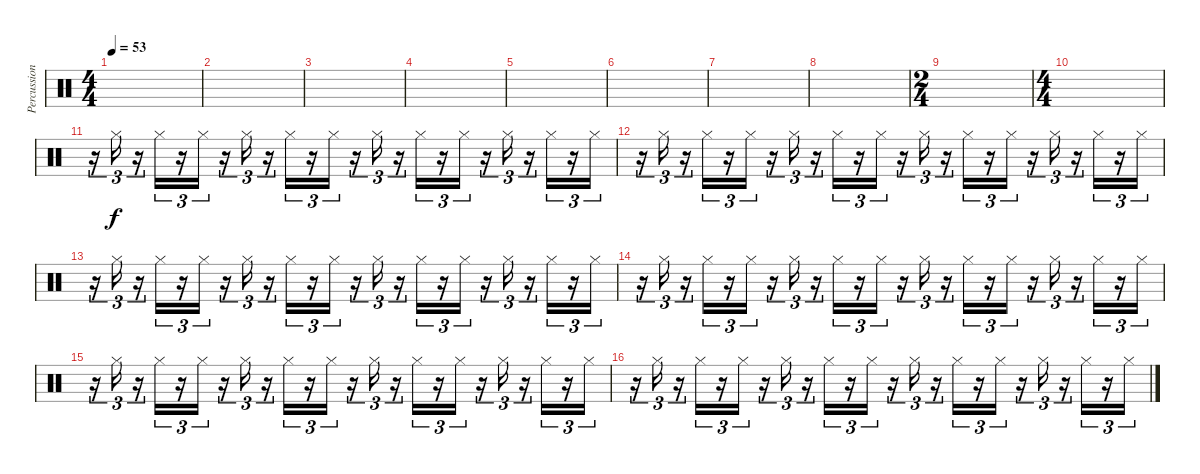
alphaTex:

\track ("Percussion" "Percussion") {instrument percussion}
\staff {score}
\articulation defaults
\ts (4 4)
\tempo 53
\clef neutral
\ks c
|
|
|
|
|
|
|
|
\ts (2 4)
|
\ts (4 4)
|
r.16{tu (3 2) volume 6} "Hi-Hat (closed)".16{tu (3 2)} r.16{tu (3 2)} "Hi-Hat (closed)".16{tu (3 2)} r.16{tu (3 2)} "Hi-Hat (closed)".16{tu (3 2)} r.16{tu (3 2)} "Hi-Hat (closed)".16{tu (3 2)} r.16{tu (3 2)} "Hi-Hat (closed)".16{tu (3 2)} r.16{tu (3 2)} "Hi-Hat (closed)".16{tu (3 2)} r.16{tu (3 2)} "Hi-Hat (closed)".16{tu (3 2)} r.16{tu (3 2)} "Hi-Hat (closed)".16{tu (3 2)} r.16{tu (3 2)} "Hi-Hat (closed)".16{tu (3 2)} r.16{tu (3 2)} "Hi-Hat (closed)".16{tu (3 2)} r.16{tu (3 2)} "Hi-Hat (closed)".16{tu (3 2)} r.16{tu (3 2)} "Hi-Hat (closed)".16{tu (3 2)} |
r.16{tu (3 2) volume 6} "Hi-Hat (closed)".16{tu (3 2)} r.16{tu (3 2)} "Hi-Hat (closed)".16{tu (3 2)} r.16{tu (3 2)} "Hi-Hat (closed)".16{tu (3 2)} r.16{tu (3 2)} "Hi-Hat (closed)".16{tu (3 2)} r.16{tu (3 2)} "Hi-Hat (closed)".16{tu (3 2)} r.16{tu (3 2)} "Hi-Hat (closed)".16{tu (3 2)} r.16{tu (3 2)} "Hi-Hat (closed)".16{tu (3 2)} r.16{tu (3 2)} "Hi-Hat (closed)".16{tu (3 2)} r.16{tu (3 2)} "Hi-Hat (closed)".16{tu (3 2)} r.16{tu (3 2)} "Hi-Hat (closed)".16{tu (3 2)} r.16{tu (3 2)} "Hi-Hat (closed)".16{tu (3 2)} r.16{tu (3 2)} "Hi-Hat (closed)".16{tu (3 2)} |
r.16{tu (3 2) volume 6} "Hi-Hat (closed)".16{tu (3 2)} r.16{tu (3 2)} "Hi-Hat (closed)".16{tu (3 2)} r.16{tu (3 2)} "Hi-Hat (closed)".16{tu (3 2)} r.16{tu (3 2)} "Hi-Hat (closed)".16{tu (3 2)} r.16{tu (3 2)} "Hi-Hat (closed)".16{tu (3 2)} r.16{tu (3 2)} "Hi-Hat (closed)".16{tu (3 2)} r.16{tu (3 2)} "Hi-Hat (closed)".16{tu (3 2)} r.16{tu (3 2)} "Hi-Hat (closed)".16{tu (3 2)} r.16{tu (3 2)} "Hi-Hat (closed)".16{tu (3 2)} r.16{tu (3 2)} "Hi-Hat (closed)".16{tu (3 2)} r.16{tu (3 2)} "Hi-Hat (closed)".16{tu (3 2)} r.16{tu (3 2)} "Hi-Hat (closed)".16{tu (3 2)} |
r.16{tu (3 2) volume 6} "Hi-Hat (closed)".16{tu (3 2)} r.16{tu (3 2)} "Hi-Hat (closed)".16{tu (3 2)} r.16{tu (3 2)} "Hi-Hat (closed)".16{tu (3 2)} r.16{tu (3 2)} "Hi-Hat (closed)".16{tu (3 2)} r.16{tu (3 2)} "Hi-Hat (closed)".16{tu (3 2)} r.16{tu (3 2)} "Hi-Hat (closed)".16{tu (3 2)} r.16{tu (3 2)} "Hi-Hat (closed)".16{tu (3 2)} r.16{tu (3 2)} "Hi-Hat (closed)".16{tu (3 2)} r.16{tu (3 2)} "Hi-Hat (closed)".16{tu (3 2)} r.16{tu (3 2)} "Hi-Hat (closed)".16{tu (3 2)} r.16{tu (3 2)} "Hi-Hat (closed)".16{tu (3 2)} r.16{tu (3 2)} "Hi-Hat (closed)".16{tu (3 2)} |
r.16{tu (3 2) volume 6} "Hi-Hat (closed)".16{tu (3 2)} r.16{tu (3 2)} "Hi-Hat (closed)".16{tu (3 2)} r.16{tu (3 2)} "Hi-Hat (closed)".16{tu (3 2)} r.16{tu (3 2)} "Hi-Hat (closed)".16{tu (3 2)} r.16{tu (3 2)} "Hi-Hat (closed)".16{tu (3 2)} r.16{tu (3 2)} "Hi-Hat (closed)".16{tu (3 2)} r.16{tu (3 2)} "Hi-Hat (closed)".16{tu (3 2)} r.16{tu (3 2)} "Hi-Hat (closed)".16{tu (3 2)} r.16{tu (3 2)} "Hi-Hat (closed)".16{tu (3 2)} r.16{tu (3 2)} "Hi-Hat (closed)".16{tu (3 2)} r.16{tu (3 2)} "Hi-Hat (closed)".16{tu (3 2)} r.16{tu (3 2)} "Hi-Hat (closed)".16{tu (3 2)} |
r.16{tu (3 2) volume 6} "Hi-Hat (closed)".16{tu (3 2)} r.16{tu (3 2)} "Hi-Hat (closed)".16{tu (3 2)} r.16{tu (3 2)} "Hi-Hat (closed)".16{tu (3 2)} r.16{tu (3 2)} "Hi-Hat (closed)".16{tu (3 2)} r.16{tu (3 2)} "Hi-Hat (closed)".16{tu (3 2)} r.16{tu (3 2)} "Hi-Hat (closed)".16{tu (3 2)} r.16{tu (3 2)} "Hi-Hat (closed)".16{tu (3 2)} r.16{tu (3 2)} "Hi-Hat (closed)".16{tu (3 2)} r.16{tu (3 2)} "Hi-Hat (closed)".16{tu (3 2)} r.16{tu (3 2)} "Hi-Hat (closed)".16{tu (3 2)} r.16{tu (3 2)} "Hi-Hat (closed)".16{tu (3 2)} r.16{tu (3 2)} "Hi-Hat (closed)".16{tu (3 2)}
